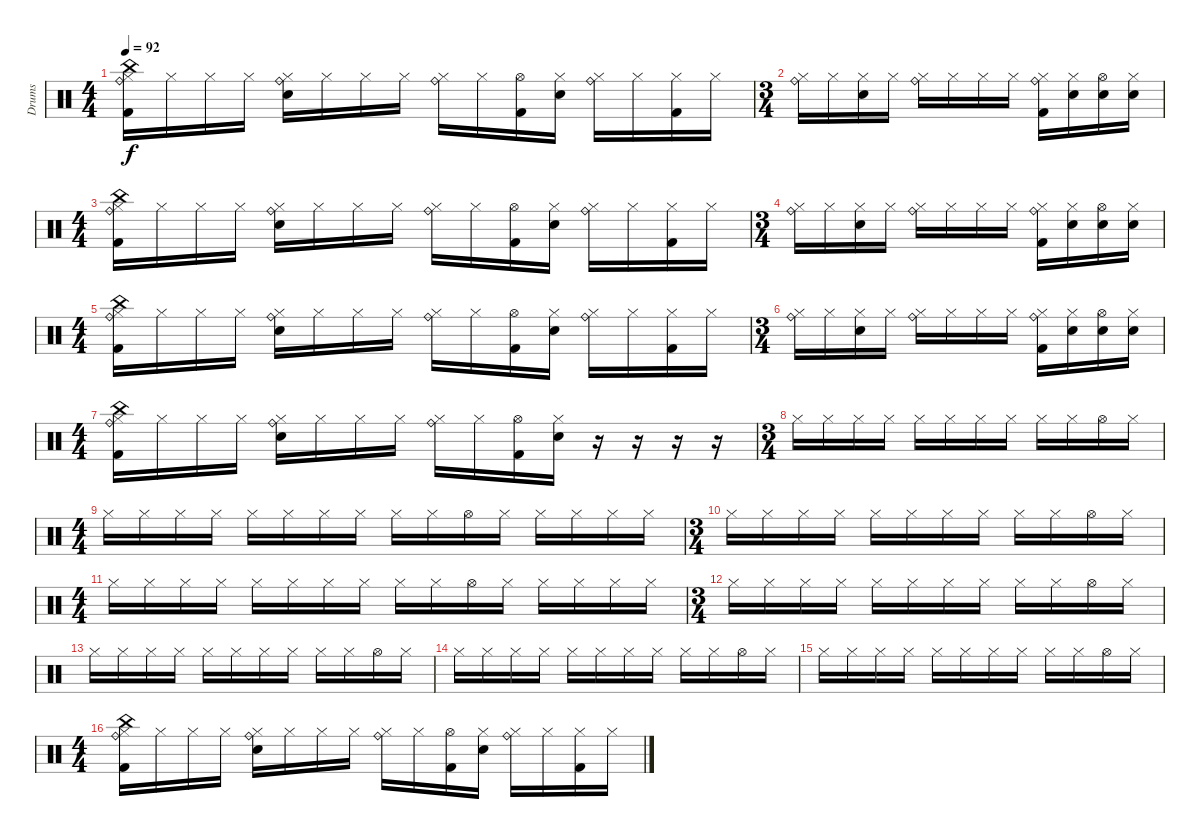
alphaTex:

\track ("Drums" "Drums") {instrument percussion}
\staff {score}
\articulation defaults
\ts (4 4)
\tempo 92
\clef neutral
\ks c
("Ride (bell)" "China (hit)" "Hi-Hat (closed)" "Kick (hit) 2").16{dy f} "Hi-Hat (closed)".16 "Hi-Hat (closed)".16 "Hi-Hat (closed)".16 ("Ride (bell)" "Hi-Hat (closed)" "Snare (hit) 2").16 "Hi-Hat (closed)".16 "Hi-Hat (closed)".16 "Hi-Hat (closed)".16 ("Ride (bell)" "Hi-Hat (closed)").16 "Hi-Hat (closed)".16 ("Hi-Hat (open)" "Kick (hit) 2").16 ("Hi-Hat (closed)" "Snare (hit) 2").16 ("Ride (bell)" "Hi-Hat (closed)").16 "Hi-Hat (closed)".16 ("Hi-Hat (closed)" "Kick (hit) 2").16 "Hi-Hat (closed)".16 |
\ts (3 4)
("Ride (bell)" "Hi-Hat (closed)").16 "Hi-Hat (closed)".16 ("Hi-Hat (closed)" "Snare (hit) 2").16 "Hi-Hat (closed)".16 ("Ride (bell)" "Hi-Hat (closed)").16 "Hi-Hat (closed)".16 "Hi-Hat (closed)".16 "Hi-Hat (closed)".16 ("Ride (bell)" "Hi-Hat (closed)" "Kick (hit) 2").16 ("Hi-Hat (closed)" "Snare (hit) 2").16 ("Hi-Hat (open)" "Snare (hit) 2").16 ("Hi-Hat (closed)" "Snare (hit) 2").16 |
\ts (4 4)
("Ride (bell)" "China (hit)" "Hi-Hat (closed)" "Kick (hit) 2").16 "Hi-Hat (closed)".16 "Hi-Hat (closed)".16 "Hi-Hat (closed)".16 ("Ride (bell)" "Hi-Hat (closed)" "Snare (hit) 2").16 "Hi-Hat (closed)".16 "Hi-Hat (closed)".16 "Hi-Hat (closed)".16 ("Ride (bell)" "Hi-Hat (closed)").16 "Hi-Hat (closed)".16 ("Hi-Hat (open)" "Kick (hit) 2").16 ("Hi-Hat (closed)" "Snare (hit) 2").16 ("Ride (bell)" "Hi-Hat (closed)").16 "Hi-Hat (closed)".16 ("Hi-Hat (closed)" "Kick (hit) 2").16 "Hi-Hat (closed)".16 |
\ts (3 4)
("Ride (bell)" "Hi-Hat (closed)").16 "Hi-Hat (closed)".16 ("Hi-Hat (closed)" "Snare (hit) 2").16 "Hi-Hat (closed)".16 ("Ride (bell)" "Hi-Hat (closed)").16 "Hi-Hat (closed)".16 "Hi-Hat (closed)".16 "Hi-Hat (closed)".16 ("Ride (bell)" "Hi-Hat (closed)" "Kick (hit) 2").16 ("Hi-Hat (closed)" "Snare (hit) 2").16 ("Hi-Hat (open)" "Snare (hit) 2").16 ("Hi-Hat (closed)" "Snare (hit) 2").16 |
\ts (4 4)
("Ride (bell)" "China (hit)" "Hi-Hat (closed)" "Kick (hit) 2").16 "Hi-Hat (closed)".16 "Hi-Hat (closed)".16 "Hi-Hat (closed)".16 ("Ride (bell)" "Hi-Hat (closed)" "Snare (hit) 2").16 "Hi-Hat (closed)".16 "Hi-Hat (closed)".16 "Hi-Hat (closed)".16 ("Ride (bell)" "Hi-Hat (closed)").16 "Hi-Hat (closed)".16 ("Hi-Hat (open)" "Kick (hit) 2").16 ("Hi-Hat (closed)" "Snare (hit) 2").16 ("Ride (bell)" "Hi-Hat (closed)").16 "Hi-Hat (closed)".16 ("Hi-Hat (closed)" "Kick (hit) 2").16 "Hi-Hat (closed)".16 |
\ts (3 4)
("Ride (bell)" "Hi-Hat (closed)").16 "Hi-Hat (closed)".16 ("Hi-Hat (closed)" "Snare (hit) 2").16 "Hi-Hat (closed)".16 ("Ride (bell)" "Hi-Hat (closed)").16 "Hi-Hat (closed)".16 "Hi-Hat (closed)".16 "Hi-Hat (closed)".16 ("Ride (bell)" "Hi-Hat (closed)" "Kick (hit) 2").16 ("Hi-Hat (closed)" "Snare (hit) 2").16 ("Hi-Hat (open)" "Snare (hit) 2").16 ("Hi-Hat (closed)" "Snare (hit) 2").16 |
\ts (4 4)
("Ride (bell)" "China (hit)" "Hi-Hat (closed)" "Kick (hit) 2").16 "Hi-Hat (closed)".16 "Hi-Hat (closed)".16 "Hi-Hat (closed)".16 ("Ride (bell)" "Hi-Hat (closed)" "Snare (hit) 2").16 "Hi-Hat (closed)".16 "Hi-Hat (closed)".16 "Hi-Hat (closed)".16 ("Ride (bell)" "Hi-Hat (closed)").16 "Hi-Hat (closed)".16 ("Hi-Hat (open)" "Kick (hit) 2").16 ("Hi-Hat (closed)" "Snare (hit) 2").16 r.16 r.16 r.16 r.16 |
\ts (3 4)
"Hi-Hat (closed)".16 "Hi-Hat (closed)".16 "Hi-Hat (closed)".16 "Hi-Hat (closed)".16 "Hi-Hat (closed)".16 "Hi-Hat (closed)".16 "Hi-Hat (closed)".16 "Hi-Hat (closed)".16 "Hi-Hat (closed)".16 "Hi-Hat (closed)".16 "Hi-Hat (open)".16 "Hi-Hat (closed)".16 |
\ts (4 4)
"Hi-Hat (closed)".16 "Hi-Hat (closed)".16 "Hi-Hat (closed)".16 "Hi-Hat (closed)".16 "Hi-Hat (closed)".16 "Hi-Hat (closed)".16 "Hi-Hat (closed)".16 "Hi-Hat (closed)".16 "Hi-Hat (closed)".16 "Hi-Hat (closed)".16 "Hi-Hat (open)".16 "Hi-Hat (closed)".16 "Hi-Hat (closed)".16 "Hi-Hat (closed)".16 "Hi-Hat (closed)".16 "Hi-Hat (closed)".16 |
\ts (3 4)
"Hi-Hat (closed)".16 "Hi-Hat (closed)".16 "Hi-Hat (closed)".16 "Hi-Hat (closed)".16 "Hi-Hat (closed)".16 "Hi-Hat (closed)".16 "Hi-Hat (closed)".16 "Hi-Hat (closed)".16 "Hi-Hat (closed)".16 "Hi-Hat (closed)".16 "Hi-Hat (open)".16 "Hi-Hat (closed)".16 |
\ts (4 4)
"Hi-Hat (closed)".16 "Hi-Hat (closed)".16 "Hi-Hat (closed)".16 "Hi-Hat (closed)".16 "Hi-Hat (closed)".16 "Hi-Hat (closed)".16 "Hi-Hat (closed)".16 "Hi-Hat (closed)".16 "Hi-Hat (closed)".16 "Hi-Hat (closed)".16 "Hi-Hat (open)".16 "Hi-Hat (closed)".16 "Hi-Hat (closed)".16 "Hi-Hat (closed)".16 "Hi-Hat (closed)".16 "Hi-Hat (closed)".16 |
\ts (3 4)
"Hi-Hat (closed)".16 "Hi-Hat (closed)".16 "Hi-Hat (closed)".16 "Hi-Hat (closed)".16 "Hi-Hat (closed)".16 "Hi-Hat (closed)".16 "Hi-Hat (closed)".16 "Hi-Hat (closed)".16 "Hi-Hat (closed)".16 "Hi-Hat (closed)".16 "Hi-Hat (open)".16 "Hi-Hat (closed)".16 |
"Hi-Hat (closed)".16 "Hi-Hat (closed)".16 "Hi-Hat (closed)".16 "Hi-Hat (closed)".16 "Hi-Hat (closed)".16 "Hi-Hat (closed)".16 "Hi-Hat (closed)".16 "Hi-Hat (closed)".16 "Hi-Hat (closed)".16 "Hi-Hat (closed)".16 "Hi-Hat (open)".16 "Hi-Hat (closed)".16 |
"Hi-Hat (closed)".16 "Hi-Hat (closed)".16 "Hi-Hat (closed)".16 "Hi-Hat (closed)".16 "Hi-Hat (closed)".16 "Hi-Hat (closed)".16 "Hi-Hat (closed)".16 "Hi-Hat (closed)".16 "Hi-Hat (closed)".16 "Hi-Hat (closed)".16 "Hi-Hat (open)".16 "Hi-Hat (closed)".16 |
"Hi-Hat (closed)".16 "Hi-Hat (closed)".16 "Hi-Hat (closed)".16 "Hi-Hat (closed)".16 "Hi-Hat (closed)".16 "Hi-Hat (closed)".16 "Hi-Hat (closed)".16 "Hi-Hat (closed)".16 "Hi-Hat (closed)".16 "Hi-Hat (closed)".16 "Hi-Hat (open)".16 "Hi-Hat (closed)".16 |
\ts (4 4)
("Ride (bell)" "China (hit)" "Hi-Hat (closed)" "Kick (hit) 2").16 "Hi-Hat (closed)".16 "Hi-Hat (closed)".16 "Hi-Hat (closed)".16 ("Ride (bell)" "Hi-Hat (closed)" "Snare (hit) 2").16 "Hi-Hat (closed)".16 "Hi-Hat (closed)".16 "Hi-Hat (closed)".16 ("Ride (bell)" "Hi-Hat (closed)").16 "Hi-Hat (closed)".16 ("Hi-Hat (open)" "Kick (hit) 2").16 ("Hi-Hat (closed)" "Snare (hit) 2").16 ("Ride (bell)" "Hi-Hat (closed)").16 "Hi-Hat (closed)".16 ("Hi-Hat (closed)" "Kick (hit) 2").16 "Hi-Hat (closed)".16
